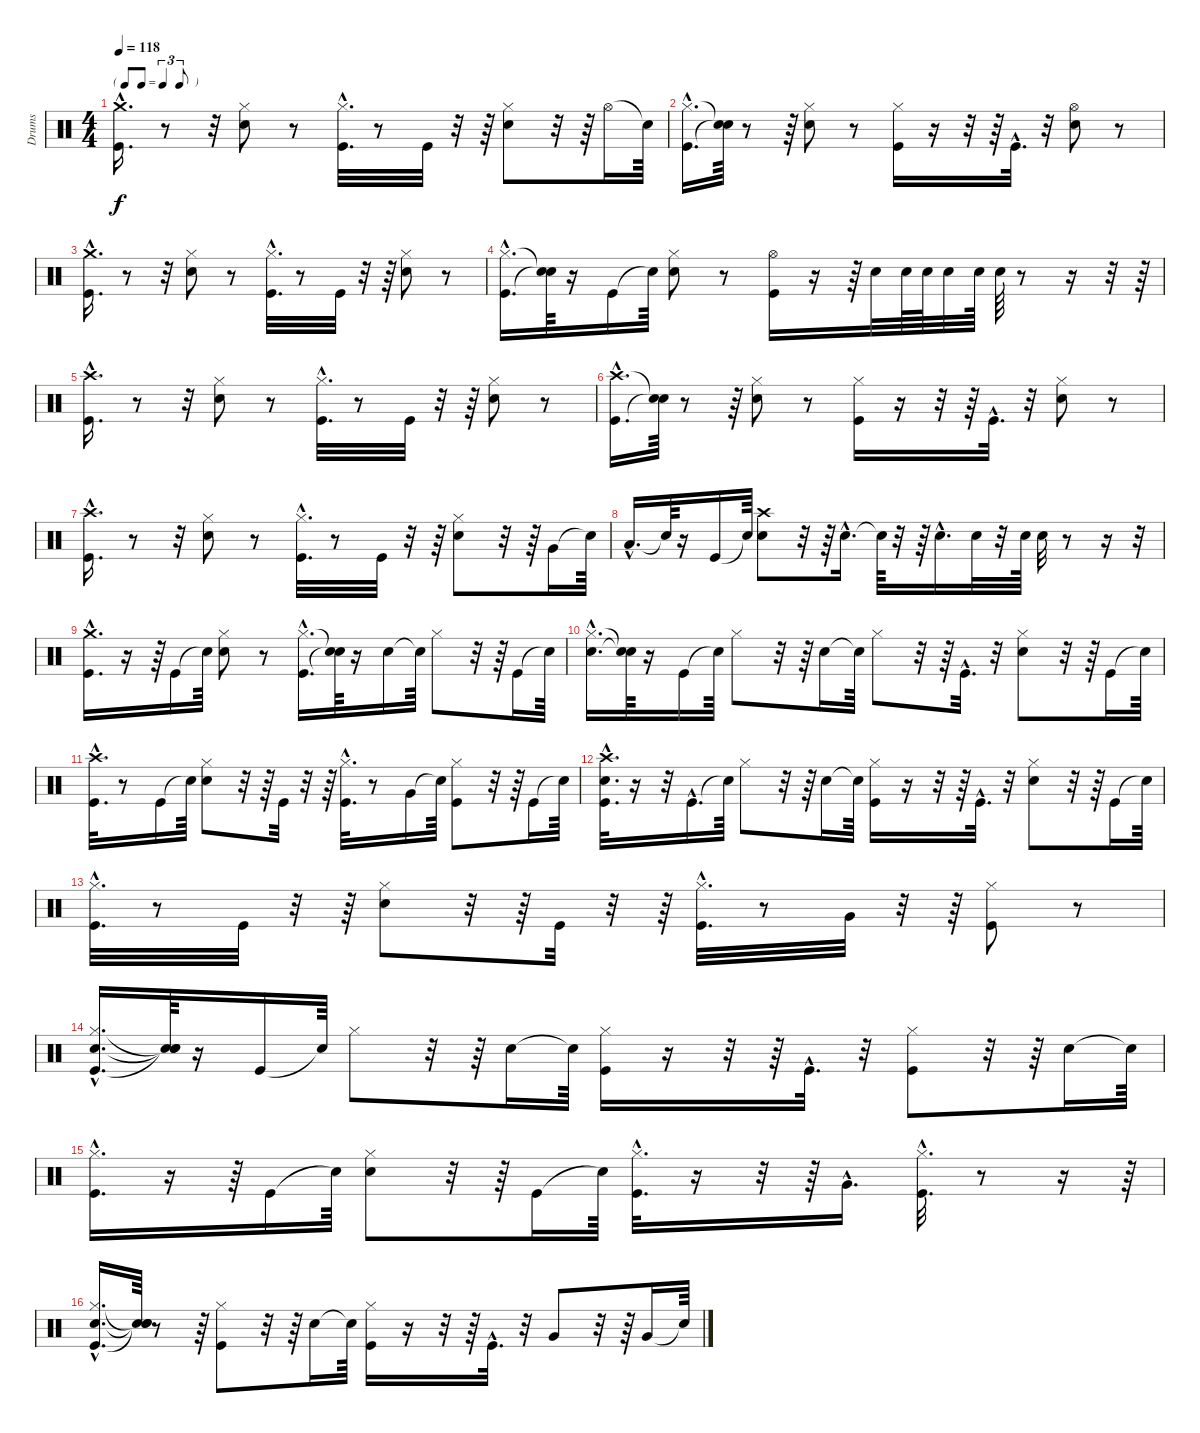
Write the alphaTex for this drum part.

\track ("Drums" "Drums") {instrument percussion}
\staff {score}
\articulation defaults
\ts (4 4)
\tf triplet8th
\tempo 118
\clef neutral
\ks c
("Kick (hit)"{hac} "Crash medium (hit)"{hac}).16{d dy f} r.8 r.32 ("Hi-Hat (closed)" "Snare (hit) 2").8 r.8 ("Kick (hit)"{hac} "Hi-Hat (closed)"{hac}).32{d} r.8 "Kick (hit)".32 r.32 r.64 ("Snare (hit) 2" "Hi-Hat (closed)").8 r.32 r.64 "Hi-Hat (open)".16 "Snare (hit)"{t}.64 |
("Hi-Hat (closed)"{hac} "Kick (hit)"{hac}).16{d} ("Snare (hit)"{t} "Snare (hit)"{t}).64 r.8 r.64 ("Snare (hit) 2" "Hi-Hat (closed)").8 r.8 ("Kick (hit)" "Hi-Hat (closed)").16 r.16 r.32 r.64 "Kick (hit)"{hac}.32{d} r.32 ("Snare (hit) 2" "Hi-Hat (open)").8 r.8 |
("Kick (hit)"{hac} "Crash medium (hit)"{hac}).16{d} r.8 r.32 ("Hi-Hat (closed)" "Snare (hit) 2").8 r.8 ("Kick (hit)"{hac} "Hi-Hat (closed)"{hac}).32{d} r.8 "Kick (hit)".32 r.32 r.64 ("Snare (hit) 2" "Hi-Hat (closed)").8 r.8 |
("Hi-Hat (closed)"{hac} "Kick (hit)"{hac}).16{d} ("Snare (hit)"{t} "Snare (hit)"{t}).64 r.16 "Kick (hit)".16 "Snare (hit)"{t}.64 ("Snare (hit) 2" "Hi-Hat (closed)").8 r.8 ("Hi-Hat (open)" "Kick (hit)").16 r.16 r.64 "Snare (hit) 2".32 "Snare (hit) 2".64 "Snare (hit) 2".64 "Snare (hit) 2".32 "Snare (hit) 2".64 "Snare (hit) 2".64 r.8 r.16 r.32 r.64 |
("Kick (hit)"{hac} "Crash high (hit)"{hac}).16{d} r.8 r.32 ("Snare (hit) 2" "Hi-Hat (closed)").8 r.8 ("Hi-Hat (closed)"{hac} "Kick (hit)"{hac}).32{d} r.8 "Kick (hit)".32 r.32 r.64 ("Snare (hit) 2" "Hi-Hat (closed)").8 r.8 |
("Crash high (hit)"{hac} "Kick (hit)"{hac}).16{d} ("Snare (hit)"{t} "Snare (hit)"{t}).64 r.8 r.64 ("Hi-Hat (closed)" "Snare (hit) 2").8 r.8 ("Hi-Hat (closed)" "Kick (hit)").16 r.16 r.32 r.64 "Kick (hit)"{hac}.32{d} r.32 ("Snare (hit) 2" "Hi-Hat (closed)").8 r.8 |
("Crash high (hit)"{hac} "Kick (hit)"{hac}).16{d} r.8 r.32 ("Snare (hit) 2" "Hi-Hat (closed)").8 r.8 ("Kick (hit)"{hac} "Hi-Hat (closed)"{hac}).32{d} r.8 "Kick (hit)".32 r.32 r.64 ("Snare (hit) 2" "Hi-Hat (closed)").8 r.32 r.64 "Very Low Tom (hit)".16 "Snare (hit)"{t}.64 |
"Low Floor Tom (hit)"{hac}.16{d} "Snare (hit)"{t}.64 r.16 "Kick (hit)".16 "Snare (hit)"{t}.64 ("Snare (hit) 2" "Crash high (hit)").8 r.32 r.64 "Snare (hit) 2"{hac}.16{d} "Snare (hit)"{t}.64 r.32 r.64 "Snare (hit) 2"{hac}.16{d} "Snare (hit) 2".32 r.32 "Snare (hit) 2".64 "Snare (hit) 2".32 r.8 r.16 r.32 |
("Kick (hit)"{hac} "Crash medium (hit)"{hac}).16{d} r.16 r.64 "Kick (hit)".16 "Snare (hit)"{t}.64 ("Snare (hit) 2" "Hi-Hat (closed)").8 r.8 ("Kick (hit)"{hac} "Hi-Hat (closed)"{hac}).16{d} ("Snare (hit)"{t} "Snare (hit)"{t}).64 r.16 "Snare (hit) 2".16 "Snare (hit)"{t}.64 "Hi-Hat (closed)".8 r.32 r.64 "Kick (hit)".16 "Snare (hit)"{t}.64 |
("Snare (hit) 2"{hac} "Hi-Hat (closed)"{hac}).16{d} ("Snare (hit)"{t} "Snare (hit)"{t}).64 r.16 "Kick (hit)".16 "Snare (hit)"{t}.64 "Hi-Hat (closed)".8 r.32 r.64 "Snare (hit) 2".16 "Snare (hit)"{t}.64 "Hi-Hat (closed)".8 r.32 r.64 "Kick (hit)"{hac}.32{d} r.32 ("Snare (hit) 2" "Hi-Hat (closed)").8 r.32 r.64 "Kick (hit)".16 "Snare (hit)"{t}.64 |
("Crash high (hit)"{hac} "Kick (hit)"{hac}).32{d} r.8 "Kick (hit)".16 "Snare (hit)"{t}.64 ("Snare (hit) 2" "Hi-Hat (closed)").8 r.32 r.64 "Kick (hit)".32 r.32 r.64 ("Kick (hit)"{hac} "Hi-Hat (closed)"{hac}).32{d} r.8 "Very Low Tom (hit)".16 "Snare (hit)"{t}.64 ("Kick (hit)" "Hi-Hat (closed)").8 r.32 r.64 "Kick (hit)".16 "Snare (hit)"{t}.64 |
("Snare (hit) 2"{hac} "Crash high (hit)"{hac} "Kick (hit)"{hac}).32{d} r.16 r.32 "Kick (hit)"{hac}.16{d} "Snare (hit)"{t}.64 "Hi-Hat (closed)".8 r.32 r.64 "Snare (hit) 2".16 "Snare (hit)"{t}.64 ("Hi-Hat (closed)" "Kick (hit)").16 r.16 r.32 r.64 "Kick (hit)"{hac}.32{d} r.32 ("Snare (hit) 2" "Hi-Hat (closed)").8 r.32 r.64 "Kick (hit)".16 "Snare (hit)"{t}.64 |
("Hi-Hat (closed)"{hac} "Kick (hit)"{hac}).32{d} r.8 "Kick (hit)".32 r.32 r.64 ("Hi-Hat (closed)" "Snare (hit) 2").8 r.32 r.64 "Kick (hit)".32 r.32 r.64 ("Hi-Hat (closed)"{hac} "Kick (hit)"{hac}).32{d} r.8 "Very Low Tom (hit)".32 r.32 r.64 ("Hi-Hat (closed)" "Kick (hit)").8 r.8 |
("Kick (hit)"{hac} "Hi-Hat (closed)"{hac} "Snare (hit) 2"{hac}).16{d} ("Snare (hit)"{t} "Snare (hit)"{t} "Snare (hit)"{t}).64 r.16 "Kick (hit)".16 "Snare (hit)"{t}.64 "Hi-Hat (closed)".8 r.32 r.64 "Snare (hit) 2".16 "Snare (hit)"{t}.64 ("Hi-Hat (closed)" "Kick (hit)").16 r.16 r.32 r.64 "Kick (hit)"{hac}.32{d} r.32 ("Kick (hit)" "Hi-Hat (closed)").8 r.32 r.64 "Snare (hit) 2".16 "Snare (hit)"{t}.64 |
("Hi-Hat (closed)"{hac} "Kick (hit)"{hac}).16{d} r.16 r.64 "Kick (hit)".16 "Snare (hit)"{t}.64 ("Snare (hit) 2" "Hi-Hat (closed)").8 r.32 r.64 "Kick (hit)".16 "Snare (hit)"{t}.64 ("Kick (hit)"{hac} "Hi-Hat (closed)"{hac}).32{d} r.16 r.32 r.64 "Very Low Tom (hit)"{hac}.16{d} ("Hi-Hat (closed)"{hac} "Kick (hit)"{hac}).32{d} r.8 r.16 r.64 |
("Snare (hit) 2"{hac} "Hi-Hat (closed)"{hac} "Kick (hit)"{hac}).16{d} ("Snare (hit)"{t} "Snare (hit)"{t} "Snare (hit)"{t}).64 r.8 r.64 ("Kick (hit)" "Hi-Hat (closed)").8 r.32 r.64 "Snare (hit) 2".16 "Snare (hit)"{t}.64 ("Hi-Hat (closed)" "Kick (hit)").16 r.16 r.32 r.64 "Kick (hit)"{hac}.32{d} r.32 "Very Low Tom (hit)".8 r.32 r.64 "Very Low Tom (hit)".16 "Snare (hit)"{t}.64
